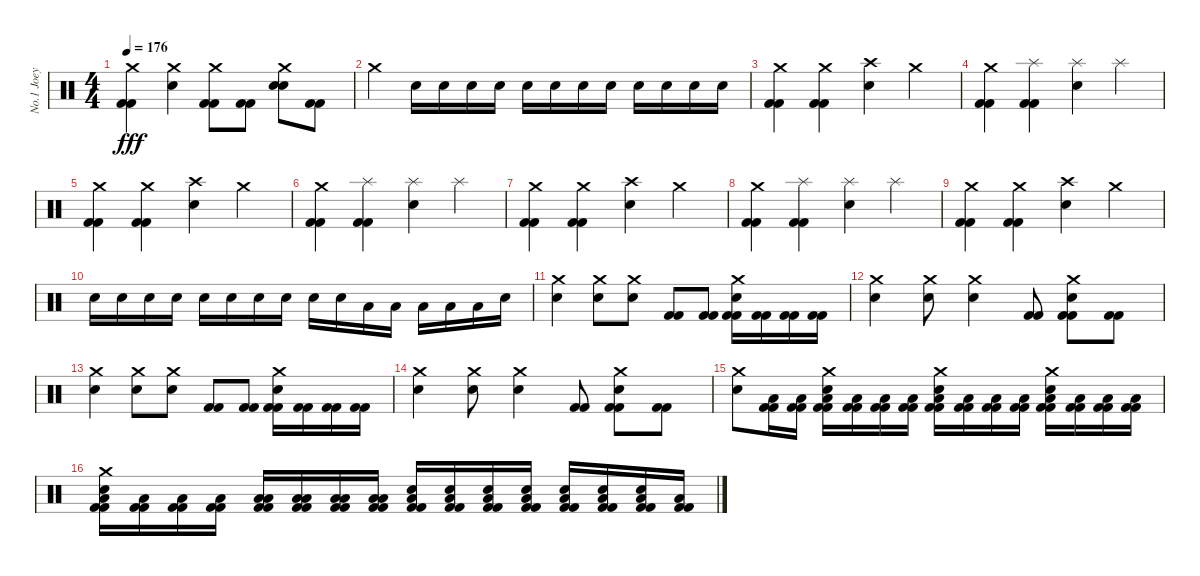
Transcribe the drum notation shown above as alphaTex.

\track ("No.1 Joey" "No.1 Joey") {instrument percussion}
\staff {score}
\articulation defaults
\ts (4 4)
\tempo 176
\clef neutral
\ks c
("Crash medium (hit)" "Kick (hit) 2" "Kick (hit) 2").4{dy fff} ("Snare (hit) 2" "Crash medium (hit)").4 ("Crash medium (hit)" "Kick (hit) 2" "Kick (hit) 2").8 ("Kick (hit) 2" "Kick (hit) 2").8 ("Snare (hit) 2" "Crash medium (hit)" "Electric Snare (hit)").8 ("Kick (hit) 2" "Kick (hit) 2").8 |
"Crash medium (hit)".4 "Snare (hit) 2".16 "Snare (hit) 2".16 "Snare (hit) 2".16 "Snare (hit) 2".16 "Snare (hit) 2".16 "Snare (hit) 2".16 "Snare (hit) 2".16 "Snare (hit) 2".16 "Snare (hit) 2".16 "Snare (hit) 2".16 "Snare (hit) 2".16 "Electric Snare (hit)".16 |
("Crash medium (hit)" "Kick (hit) 2" "Kick (hit) 2").4 ("Crash medium (hit)" "Kick (hit) 2" "Kick (hit) 2").4 ("Electric Snare (hit)" "Crash high (hit)").4 "Crash medium (hit)".4 |
("Crash medium (hit)" "Kick (hit) 2" "Kick (hit) 2").4 ("Splash (hit)" "Kick (hit) 2" "Kick (hit) 2").4 ("Electric Snare (hit)" "Splash (hit)").4 "Splash (hit)".4 |
("Crash medium (hit)" "Kick (hit) 2" "Kick (hit) 2").4 ("Crash medium (hit)" "Kick (hit) 2" "Kick (hit) 2").4 ("Electric Snare (hit)" "Crash high (hit)").4 "Crash medium (hit)".4 |
("Crash medium (hit)" "Kick (hit) 2" "Kick (hit) 2").4 ("Splash (hit)" "Kick (hit) 2" "Kick (hit) 2").4 ("Electric Snare (hit)" "Splash (hit)").4 "Splash (hit)".4 |
("Crash medium (hit)" "Kick (hit) 2" "Kick (hit) 2").4 ("Crash medium (hit)" "Kick (hit) 2" "Kick (hit) 2").4 ("Electric Snare (hit)" "Crash high (hit)").4 "Crash medium (hit)".4 |
("Crash medium (hit)" "Kick (hit) 2" "Kick (hit) 2").4 ("Splash (hit)" "Kick (hit) 2" "Kick (hit) 2").4 ("Electric Snare (hit)" "Splash (hit)").4 "Splash (hit)".4 |
("Crash medium (hit)" "Kick (hit) 2" "Kick (hit) 2").4 ("Crash medium (hit)" "Kick (hit) 2" "Kick (hit) 2").4 ("Electric Snare (hit)" "Crash high (hit)").4 "Crash medium (hit)".4 |
"Electric Snare (hit)".16 "Electric Snare (hit)".16 "Electric Snare (hit)".16 "Electric Snare (hit)".16 "Electric Snare (hit)".16 "Snare (hit) 2".16 "Snare (hit) 2".16 "Snare (hit) 2".16 "Snare (hit) 2".16 "Snare (hit) 2".16 "Low Floor Tom (hit)".16 "Low Floor Tom (hit)".16 "Low Floor Tom (hit)".16 "Low Floor Tom (hit)".16 "Low Floor Tom (hit)".16 "Electric Snare (hit)".16 |
("Electric Snare (hit)" "Crash medium (hit)").4 ("Electric Snare (hit)" "Crash medium (hit)").8 ("Electric Snare (hit)" "Crash medium (hit)").8 ("Kick (hit) 2" "Kick (hit) 2").8 ("Kick (hit) 2" "Kick (hit) 2").8 ("Electric Snare (hit)" "Crash medium (hit)" "Kick (hit) 2" "Kick (hit) 2").16 ("Kick (hit) 2" "Kick (hit) 2").16 ("Kick (hit) 2" "Kick (hit) 2").16 ("Kick (hit) 2" "Kick (hit) 2").16 |
("Electric Snare (hit)" "Crash medium (hit)").4 ("Electric Snare (hit)" "Crash medium (hit)").8 ("Electric Snare (hit)" "Crash medium (hit)").4 ("Kick (hit) 2" "Kick (hit) 2").8 ("Electric Snare (hit)" "Crash medium (hit)" "Kick (hit) 2" "Kick (hit) 2").8 ("Kick (hit) 2" "Kick (hit) 2").8 |
("Electric Snare (hit)" "Crash medium (hit)").4 ("Electric Snare (hit)" "Crash medium (hit)").8 ("Electric Snare (hit)" "Crash medium (hit)").8 ("Kick (hit) 2" "Kick (hit) 2").8 ("Kick (hit) 2" "Kick (hit) 2").8 ("Electric Snare (hit)" "Crash medium (hit)" "Kick (hit) 2" "Kick (hit) 2").16 ("Kick (hit) 2" "Kick (hit) 2").16 ("Kick (hit) 2" "Kick (hit) 2").16 ("Kick (hit) 2" "Kick (hit) 2").16 |
("Electric Snare (hit)" "Crash medium (hit)").4 ("Electric Snare (hit)" "Crash medium (hit)").8 ("Electric Snare (hit)" "Crash medium (hit)").4 ("Kick (hit) 2" "Kick (hit) 2").8 ("Electric Snare (hit)" "Crash medium (hit)" "Kick (hit) 2" "Kick (hit) 2").8 ("Kick (hit) 2" "Kick (hit) 2").8 |
("Electric Snare (hit)" "Crash medium (hit)").8 ("Low Floor Tom (hit)" "Kick (hit) 2" "Kick (hit) 2").16 ("Low Floor Tom (hit)" "Kick (hit) 2" "Kick (hit) 2").16 ("Electric Snare (hit)" "Crash medium (hit)" "Low Floor Tom (hit)" "Kick (hit) 2" "Kick (hit) 2").16 ("Low Floor Tom (hit)" "Kick (hit) 2" "Kick (hit) 2").16 ("Low Floor Tom (hit)" "Kick (hit) 2" "Kick (hit) 2").16 ("Low Floor Tom (hit)" "Kick (hit) 2" "Kick (hit) 2").16 ("Electric Snare (hit)" "Crash medium (hit)" "Low Floor Tom (hit)" "Kick (hit) 2" "Kick (hit) 2").16 ("Low Floor Tom (hit)" "Kick (hit) 2" "Kick (hit) 2").16 ("Low Floor Tom (hit)" "Kick (hit) 2" "Kick (hit) 2").16 ("Low Floor Tom (hit)" "Kick (hit) 2" "Kick (hit) 2").16 ("Electric Snare (hit)" "Crash medium (hit)" "Low Floor Tom (hit)" "Kick (hit) 2" "Kick (hit) 2").16 ("Low Floor Tom (hit)" "Kick (hit) 2" "Kick (hit) 2").16 ("Low Floor Tom (hit)" "Kick (hit) 2" "Kick (hit) 2").16 ("Low Floor Tom (hit)" "Kick (hit) 2" "Kick (hit) 2").16 |
("Electric Snare (hit)" "Crash medium (hit)" "Low Floor Tom (hit)" "Kick (hit) 2" "Kick (hit) 2").16 ("Low Floor Tom (hit)" "Kick (hit) 2" "Kick (hit) 2").16 ("Low Floor Tom (hit)" "Kick (hit) 2" "Kick (hit) 2").16 ("Low Floor Tom (hit)" "Kick (hit) 2" "Kick (hit) 2").16 ("Low Floor Tom (hit)" "Low Floor Tom (hit)" "Kick (hit) 2" "Kick (hit) 2").16 ("Low Floor Tom (hit)" "Low Floor Tom (hit)" "Kick (hit) 2" "Kick (hit) 2").16 ("Low Floor Tom (hit)" "Low Floor Tom (hit)" "Kick (hit) 2" "Kick (hit) 2").16 ("Low Floor Tom (hit)" "Low Floor Tom (hit)" "Kick (hit) 2" "Kick (hit) 2").16 ("Snare (hit) 2" "Low Floor Tom (hit)" "Kick (hit) 2" "Kick (hit) 2").16 ("Snare (hit) 2" "Low Floor Tom (hit)" "Kick (hit) 2" "Kick (hit) 2").16 ("Snare (hit) 2" "Low Floor Tom (hit)" "Kick (hit) 2" "Kick (hit) 2").16 ("Snare (hit) 2" "Low Floor Tom (hit)" "Kick (hit) 2" "Kick (hit) 2").16 ("Electric Snare (hit)" "Low Floor Tom (hit)" "Kick (hit) 2" "Kick (hit) 2").16 ("Electric Snare (hit)" "Low Floor Tom (hit)" "Kick (hit) 2" "Kick (hit) 2").16 ("Electric Snare (hit)" "Low Floor Tom (hit)" "Kick (hit) 2" "Kick (hit) 2").16 ("Low Floor Tom (hit)" "Kick (hit) 2" "Kick (hit) 2").16
